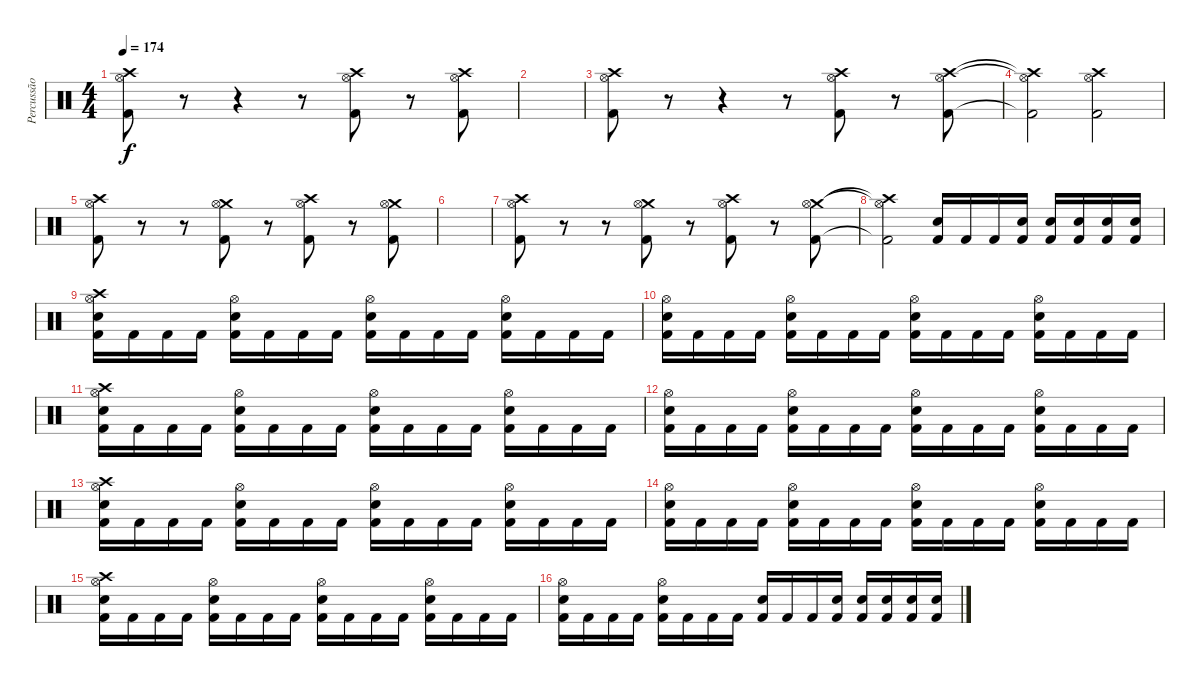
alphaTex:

\track ("Percussão" "Percussão") {instrument percussion}
\staff {score}
\articulation defaults
\ts (4 4)
\tempo 174
\clef neutral
\ks c
("Crash high (hit)" "Hi-Hat (open)" "Kick (hit) 2").8{dy f} r.8 r.4 r.8 ("Crash high (hit)" "Hi-Hat (open)" "Kick (hit) 2").8 r.8 ("Crash high (hit)" "Hi-Hat (open)" "Kick (hit) 2").8 |
|
("Crash high (hit)" "Hi-Hat (open)" "Kick (hit) 2").8 r.8 r.4 r.8 ("Crash high (hit)" "Hi-Hat (open)" "Kick (hit) 2").8 r.8 ("Crash high (hit)" "Hi-Hat (open)" "Kick (hit) 2").8 |
("Crash high (hit)"{t} "Hi-Hat (open)"{t} "Kick (hit) 2"{t}).2 ("Crash high (hit)" "Hi-Hat (open)" "Kick (hit) 2").2 |
("Crash high (hit)" "Hi-Hat (open)" "Kick (hit) 2").8 r.8 r.8 ("Crash medium (hit)" "Hi-Hat (open)" "Kick (hit) 2").8 r.8 ("Crash high (hit)" "Hi-Hat (open)" "Kick (hit) 2").8 r.8 ("Crash medium (hit)" "Hi-Hat (open)" "Kick (hit) 2").8 |
|
("Crash high (hit)" "Hi-Hat (open)" "Kick (hit) 2").8 r.8 r.8 ("Crash medium (hit)" "Hi-Hat (open)" "Kick (hit) 2").8 r.8 ("Crash high (hit)" "Hi-Hat (open)" "Kick (hit) 2").8 r.8 ("Crash medium (hit)" "Hi-Hat (open)" "Kick (hit) 2").8 |
("Crash high (hit)"{t} "Hi-Hat (open)"{t} "Kick (hit) 2"{t}).2 ("Electric Snare (hit)" "Kick (hit) 2").16 "Kick (hit) 2".16 "Kick (hit) 2".16 ("Electric Snare (hit)" "Kick (hit) 2").16 ("Electric Snare (hit)" "Kick (hit) 2").16 ("Electric Snare (hit)" "Kick (hit) 2").16 ("Electric Snare (hit)" "Kick (hit) 2").16 ("Electric Snare (hit)" "Kick (hit) 2").16 |
("Crash high (hit)" "Hi-Hat (open)" "Electric Snare (hit)" "Kick (hit) 2").16 "Kick (hit) 2".16 "Kick (hit) 2".16 "Kick (hit) 2".16 ("Hi-Hat (open)" "Electric Snare (hit)" "Kick (hit) 2").16 "Kick (hit) 2".16 "Kick (hit) 2".16 "Kick (hit) 2".16 ("Hi-Hat (open)" "Electric Snare (hit)" "Kick (hit) 2").16 "Kick (hit) 2".16 "Kick (hit) 2".16 "Kick (hit) 2".16 ("Hi-Hat (open)" "Electric Snare (hit)" "Kick (hit) 2").16 "Kick (hit) 2".16 "Kick (hit) 2".16 "Kick (hit) 2".16 |
("Hi-Hat (open)" "Electric Snare (hit)" "Kick (hit) 2").16 "Kick (hit) 2".16 "Kick (hit) 2".16 "Kick (hit) 2".16 ("Hi-Hat (open)" "Electric Snare (hit)" "Kick (hit) 2").16 "Kick (hit) 2".16 "Kick (hit) 2".16 "Kick (hit) 2".16 ("Hi-Hat (open)" "Electric Snare (hit)" "Kick (hit) 2").16 "Kick (hit) 2".16 "Kick (hit) 2".16 "Kick (hit) 2".16 ("Hi-Hat (open)" "Electric Snare (hit)" "Kick (hit) 2").16 "Kick (hit) 2".16 "Kick (hit) 2".16 "Kick (hit) 2".16 |
("Crash high (hit)" "Hi-Hat (open)" "Electric Snare (hit)" "Kick (hit) 2").16 "Kick (hit) 2".16 "Kick (hit) 2".16 "Kick (hit) 2".16 ("Hi-Hat (open)" "Electric Snare (hit)" "Kick (hit) 2").16 "Kick (hit) 2".16 "Kick (hit) 2".16 "Kick (hit) 2".16 ("Hi-Hat (open)" "Electric Snare (hit)" "Kick (hit) 2").16 "Kick (hit) 2".16 "Kick (hit) 2".16 "Kick (hit) 2".16 ("Hi-Hat (open)" "Electric Snare (hit)" "Kick (hit) 2").16 "Kick (hit) 2".16 "Kick (hit) 2".16 "Kick (hit) 2".16 |
("Hi-Hat (open)" "Electric Snare (hit)" "Kick (hit) 2").16 "Kick (hit) 2".16 "Kick (hit) 2".16 "Kick (hit) 2".16 ("Hi-Hat (open)" "Electric Snare (hit)" "Kick (hit) 2").16 "Kick (hit) 2".16 "Kick (hit) 2".16 "Kick (hit) 2".16 ("Hi-Hat (open)" "Electric Snare (hit)" "Kick (hit) 2").16 "Kick (hit) 2".16 "Kick (hit) 2".16 "Kick (hit) 2".16 ("Hi-Hat (open)" "Electric Snare (hit)" "Kick (hit) 2").16 "Kick (hit) 2".16 "Kick (hit) 2".16 "Kick (hit) 2".16 |
("Crash high (hit)" "Hi-Hat (open)" "Electric Snare (hit)" "Kick (hit) 2").16 "Kick (hit) 2".16 "Kick (hit) 2".16 "Kick (hit) 2".16 ("Hi-Hat (open)" "Electric Snare (hit)" "Kick (hit) 2").16 "Kick (hit) 2".16 "Kick (hit) 2".16 "Kick (hit) 2".16 ("Hi-Hat (open)" "Electric Snare (hit)" "Kick (hit) 2").16 "Kick (hit) 2".16 "Kick (hit) 2".16 "Kick (hit) 2".16 ("Hi-Hat (open)" "Electric Snare (hit)" "Kick (hit) 2").16 "Kick (hit) 2".16 "Kick (hit) 2".16 "Kick (hit) 2".16 |
("Hi-Hat (open)" "Electric Snare (hit)" "Kick (hit) 2").16 "Kick (hit) 2".16 "Kick (hit) 2".16 "Kick (hit) 2".16 ("Hi-Hat (open)" "Electric Snare (hit)" "Kick (hit) 2").16 "Kick (hit) 2".16 "Kick (hit) 2".16 "Kick (hit) 2".16 ("Hi-Hat (open)" "Electric Snare (hit)" "Kick (hit) 2").16 "Kick (hit) 2".16 "Kick (hit) 2".16 "Kick (hit) 2".16 ("Hi-Hat (open)" "Electric Snare (hit)" "Kick (hit) 2").16 "Kick (hit) 2".16 "Kick (hit) 2".16 "Kick (hit) 2".16 |
("Crash high (hit)" "Hi-Hat (open)" "Electric Snare (hit)" "Kick (hit) 2").16 "Kick (hit) 2".16 "Kick (hit) 2".16 "Kick (hit) 2".16 ("Hi-Hat (open)" "Electric Snare (hit)" "Kick (hit) 2").16 "Kick (hit) 2".16 "Kick (hit) 2".16 "Kick (hit) 2".16 ("Hi-Hat (open)" "Electric Snare (hit)" "Kick (hit) 2").16 "Kick (hit) 2".16 "Kick (hit) 2".16 "Kick (hit) 2".16 ("Hi-Hat (open)" "Electric Snare (hit)" "Kick (hit) 2").16 "Kick (hit) 2".16 "Kick (hit) 2".16 "Kick (hit) 2".16 |
("Hi-Hat (open)" "Electric Snare (hit)" "Kick (hit) 2").16 "Kick (hit) 2".16 "Kick (hit) 2".16 "Kick (hit) 2".16 ("Hi-Hat (open)" "Electric Snare (hit)" "Kick (hit) 2").16 "Kick (hit) 2".16 "Kick (hit) 2".16 "Kick (hit) 2".16 ("Electric Snare (hit)" "Kick (hit) 2").16 "Kick (hit) 2".16 "Kick (hit) 2".16 ("Electric Snare (hit)" "Kick (hit) 2").16 ("Electric Snare (hit)" "Kick (hit) 2").16 ("Electric Snare (hit)" "Kick (hit) 2").16 ("Electric Snare (hit)" "Kick (hit) 2").16 ("Electric Snare (hit)" "Kick (hit) 2").16
